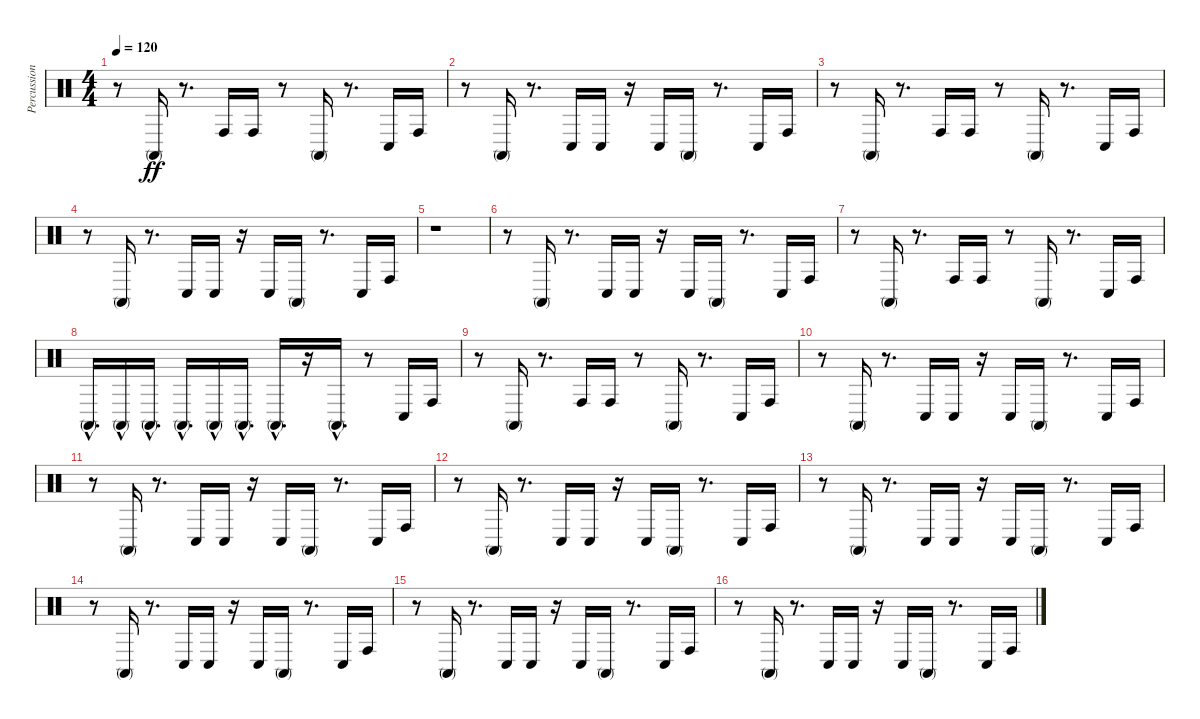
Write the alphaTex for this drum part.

\track ("Percussion" "Percussion") {instrument percussion}
\staff {score}
\articulation defaults
\ts (4 4)
\tempo 120
\clef neutral
\ks c
r.8{dy ff} "Conga high (mute)".16 r.8{d} "Conga high (hit)".16 "Conga high (hit)".16 r.8 "Conga high (mute)".16 r.8{d} "Conga low (hit)".16 "Conga high (hit)".16 |
r.8 "Conga high (mute)".16 r.8{d} "Conga low (hit)".16 "Conga low (hit)".16 r.16 "Conga low (hit)".16 "Conga high (mute)".16 r.8{d} "Conga low (hit)".16 "Conga high (hit)".16 |
r.8 "Conga high (mute)".16 r.8{d} "Conga high (hit)".16 "Conga high (hit)".16 r.8 "Conga high (mute)".16 r.8{d} "Conga low (hit)".16 "Conga high (hit)".16 |
r.8 "Conga high (mute)".16 r.8{d} "Conga low (hit)".16 "Conga low (hit)".16 r.16 "Conga low (hit)".16 "Conga high (mute)".16 r.8{d} "Conga low (hit)".16 "Conga high (hit)".16 |
r.1 |
r.8 "Conga high (mute)".16 r.8{d} "Conga low (hit)".16 "Conga low (hit)".16 r.16 "Conga low (hit)".16 "Conga high (mute)".16 r.8{d} "Conga low (hit)".16 "Conga high (hit)".16 |
r.8 "Conga high (mute)".16 r.8{d} "Conga high (hit)".16 "Conga high (hit)".16 r.8 "Conga high (mute)".16 r.8{d} "Conga low (hit)".16 "Conga high (hit)".16 |
"Conga high (mute)"{hac}.16{d} "Conga high (mute)"{hac}.16 "Conga high (mute)"{hac}.16{d} "Conga high (mute)"{hac}.16{d} "Conga high (mute)"{hac}.16 "Conga high (mute)"{hac}.16{d} "Conga high (mute)"{hac}.16{d} r.16 "Conga high (mute)"{hac}.16{d} r.8 "Conga low (hit)".16 "Conga high (hit)".16 |
r.8 "Conga high (mute)".16 r.8{d} "Conga high (hit)".16 "Conga high (hit)".16 r.8 "Conga high (mute)".16 r.8{d} "Conga low (hit)".16 "Conga high (hit)".16 |
r.8 "Conga high (mute)".16 r.8{d} "Conga low (hit)".16 "Conga low (hit)".16 r.16 "Conga low (hit)".16 "Conga high (mute)".16 r.8{d} "Conga low (hit)".16 "Conga high (hit)".16 |
r.8 "Conga high (mute)".16 r.8{d} "Conga low (hit)".16 "Conga low (hit)".16 r.16 "Conga low (hit)".16 "Conga high (mute)".16 r.8{d} "Conga low (hit)".16 "Conga high (hit)".16 |
r.8 "Conga high (mute)".16 r.8{d} "Conga low (hit)".16 "Conga low (hit)".16 r.16 "Conga low (hit)".16 "Conga high (mute)".16 r.8{d} "Conga low (hit)".16 "Conga high (hit)".16 |
r.8 "Conga high (mute)".16 r.8{d} "Conga low (hit)".16 "Conga low (hit)".16 r.16 "Conga low (hit)".16 "Conga high (mute)".16 r.8{d} "Conga low (hit)".16 "Conga high (hit)".16 |
r.8 "Conga high (mute)".16 r.8{d} "Conga low (hit)".16 "Conga low (hit)".16 r.16 "Conga low (hit)".16 "Conga high (mute)".16 r.8{d} "Conga low (hit)".16 "Conga high (hit)".16 |
r.8 "Conga high (mute)".16 r.8{d} "Conga low (hit)".16 "Conga low (hit)".16 r.16 "Conga low (hit)".16 "Conga high (mute)".16 r.8{d} "Conga low (hit)".16 "Conga high (hit)".16 |
r.8 "Conga high (mute)".16 r.8{d} "Conga low (hit)".16 "Conga low (hit)".16 r.16 "Conga low (hit)".16 "Conga high (mute)".16 r.8{d} "Conga low (hit)".16 "Conga high (hit)".16
